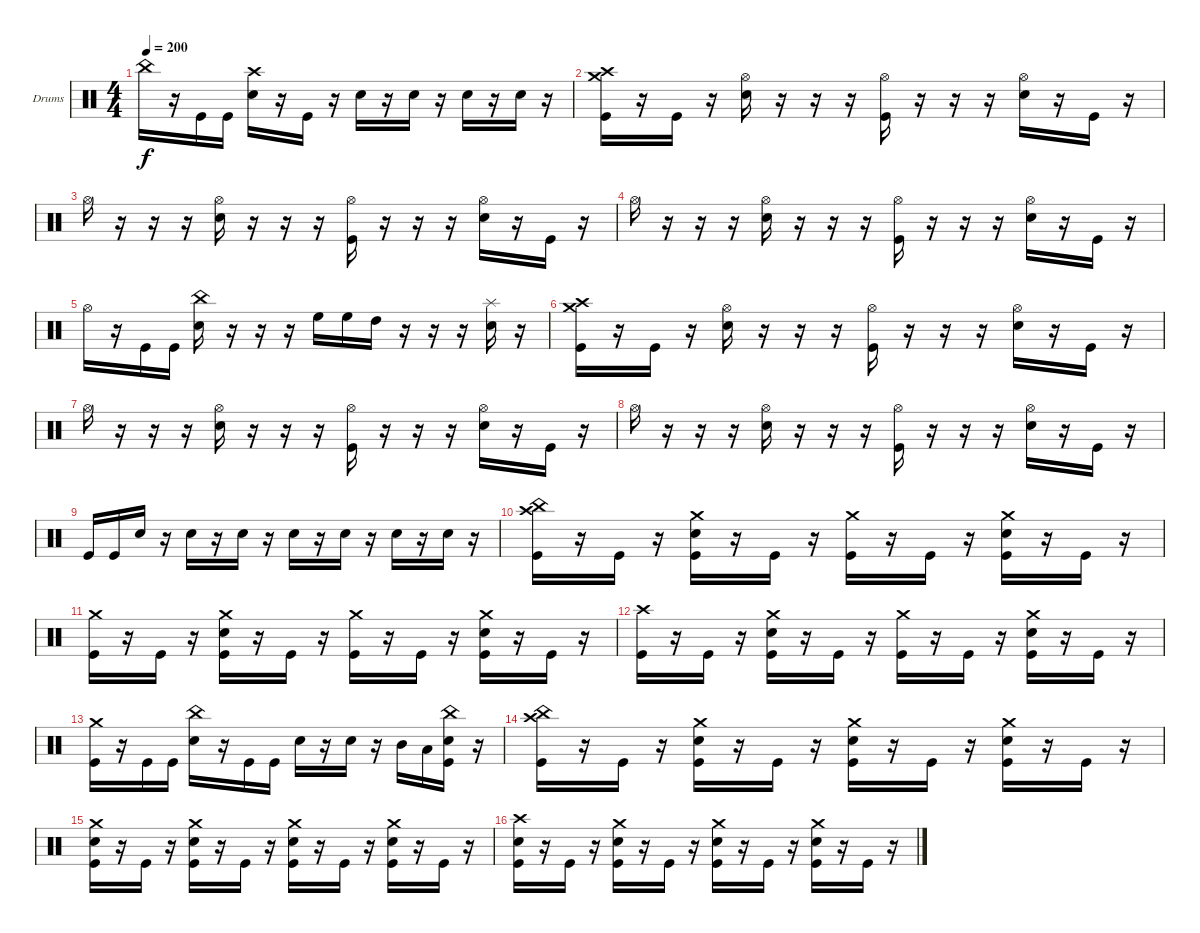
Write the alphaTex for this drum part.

\defaultSystemsLayout 4
\bracketExtendMode groupsimilarinstruments
\firstSystemTrackNameOrientation horizontal
\otherSystemsTrackNameOrientation horizontal
\track ("Drumkit" "Drums") {instrument percussion}
\staff {score}
\articulation defaults
\ts (4 4)
\tempo 200
\clef neutral
\ks c "China (hit)".16{dy f}
r.16 "Kick (hit)".16 "Kick (hit)".16 ("Snare (hit) 2" "Crash high (hit)").16 r.16 "Kick (hit)".16 r.16 "Snare (hit) 2".16 r.16 "Snare (hit) 2".16 r.16 "Snare (hit) 2".16 r.16 "Snare (hit) 2".16 r.16 |
("Kick (hit)" "Crash medium (hit)" "Crash high (hit)").16 r.16 "Kick (hit)".16 r.16 ("Snare (hit) 2" "Hi-Hat (open)").16 r.16 r.16 r.16 ("Kick (hit)" "Hi-Hat (open)").16 r.16 r.16 r.16 ("Snare (hit) 2" "Hi-Hat (open)").16 r.16 "Kick (hit)".16 r.16 |
"Hi-Hat (open)".16 r.16 r.16 r.16 ("Snare (hit) 2" "Hi-Hat (open)").16 r.16 r.16 r.16 ("Kick (hit)" "Hi-Hat (open)").16 r.16 r.16 r.16 ("Snare (hit) 2" "Hi-Hat (open)").16 r.16 "Kick (hit)".16 r.16 |
"Hi-Hat (open)".16 r.16 r.16 r.16 ("Snare (hit) 2" "Hi-Hat (open)").16 r.16 r.16 r.16 ("Kick (hit)" "Hi-Hat (open)").16 r.16 r.16 r.16 ("Snare (hit) 2" "Hi-Hat (open)").16 r.16 "Kick (hit)".16 r.16 |
"Hi-Hat (open)".16 r.16 "Kick (hit)".16 "Kick (hit)".16 ("Snare (hit) 2" "China (hit)").16 r.16 r.16 r.16 "High Floor Tom (hit)".16 "High Floor Tom (hit)".16 "High Tom (hit)".16 r.16 r.16 r.16 ("Snare (hit) 2" "Splash (hit)").16 r.16 |
("Kick (hit)" "Crash medium (hit)" "Crash high (hit)").16 r.16 "Kick (hit)".16 r.16 ("Snare (hit) 2" "Hi-Hat (open)").16 r.16 r.16 r.16 ("Kick (hit)" "Hi-Hat (open)").16 r.16 r.16 r.16 ("Snare (hit) 2" "Hi-Hat (open)").16 r.16 "Kick (hit)".16 r.16 |
"Hi-Hat (open)".16 r.16 r.16 r.16 ("Snare (hit) 2" "Hi-Hat (open)").16 r.16 r.16 r.16 ("Kick (hit)" "Hi-Hat (open)").16 r.16 r.16 r.16 ("Snare (hit) 2" "Hi-Hat (open)").16 r.16 "Kick (hit)".16 r.16 |
"Hi-Hat (open)".16 r.16 r.16 r.16 ("Snare (hit) 2" "Hi-Hat (open)").16 r.16 r.16 r.16 ("Kick (hit)" "Hi-Hat (open)").16 r.16 r.16 r.16 ("Snare (hit) 2" "Hi-Hat (open)").16 r.16 "Kick (hit)".16 r.16 |
"Kick (hit)".16 "Kick (hit)".16 "Snare (hit) 2".16 r.16 "Snare (hit) 2".16 r.16 "Snare (hit) 2".16 r.16 "Snare (hit) 2".16 r.16 "Snare (hit) 2".16 r.16 "Snare (hit) 2".16 r.16 "Snare (hit) 2".16 r.16 |
("Kick (hit)" "China (hit)" "Crash high (hit)").16 r.16 "Kick (hit)".16 r.16 ("Kick (hit)" "Snare (hit) 2" "Crash medium (hit)").16 r.16 "Kick (hit)".16 r.16 ("Kick (hit)" "Crash medium (hit)").16 r.16 "Kick (hit)".16 r.16 ("Kick (hit)" "Snare (hit) 2" "Crash medium (hit)").16 r.16 "Kick (hit)".16 r.16 |
("Kick (hit)" "Crash medium (hit)").16 r.16 "Kick (hit)".16 r.16 ("Kick (hit)" "Snare (hit) 2" "Crash medium (hit)").16 r.16 "Kick (hit)".16 r.16 ("Kick (hit)" "Crash medium (hit)").16 r.16 "Kick (hit)".16 r.16 ("Kick (hit)" "Snare (hit) 2" "Crash medium (hit)").16 r.16 "Kick (hit)".16 r.16 |
("Kick (hit)" "Crash high (hit)").16 r.16 "Kick (hit)".16 r.16 ("Kick (hit)" "Snare (hit) 2" "Crash medium (hit)").16 r.16 "Kick (hit)".16 r.16 ("Kick (hit)" "Crash medium (hit)").16 r.16 "Kick (hit)".16 r.16 ("Kick (hit)" "Snare (hit) 2" "Crash medium (hit)").16 r.16 "Kick (hit)".16 r.16 |
("Kick (hit)" "Crash medium (hit)").16 r.16 "Kick (hit)".16 "Kick (hit)".16 ("Snare (hit) 2" "China (hit)").16 r.16 "Kick (hit)".16 "Kick (hit)".16 "Snare (hit) 2".16 r.16 "Snare (hit) 2".16 r.16 "Mid Tom (hit)".16 "Low Tom (hit)".16 ("Kick (hit)" "Snare (hit) 2" "China (hit)").16 r.16 |
("Kick (hit)" "China (hit)" "Crash high (hit)").16 r.16 "Kick (hit)".16 r.16 ("Kick (hit)" "Snare (hit) 2" "Crash medium (hit)").16 r.16 "Kick (hit)".16 r.16 ("Kick (hit)" "Snare (hit) 2" "Crash medium (hit)").16 r.16 "Kick (hit)".16 r.16 ("Kick (hit)" "Snare (hit) 2" "Crash medium (hit)").16 r.16 "Kick (hit)".16 r.16 |
("Kick (hit)" "Snare (hit) 2" "Crash medium (hit)").16 r.16 "Kick (hit)".16 r.16 ("Kick (hit)" "Snare (hit) 2" "Crash medium (hit)").16 r.16 "Kick (hit)".16 r.16 ("Kick (hit)" "Snare (hit) 2" "Crash medium (hit)").16 r.16 "Kick (hit)".16 r.16 ("Kick (hit)" "Snare (hit) 2" "Crash medium (hit)").16 r.16 "Kick (hit)".16 r.16 |
("Kick (hit)" "Snare (hit) 2" "Crash high (hit)").16 r.16 "Kick (hit)".16 r.16 ("Kick (hit)" "Snare (hit) 2" "Crash medium (hit)").16 r.16 "Kick (hit)".16 r.16 ("Kick (hit)" "Snare (hit) 2" "Crash medium (hit)").16 r.16 "Kick (hit)".16 r.16 ("Kick (hit)" "Snare (hit) 2" "Crash medium (hit)").16 r.16 "Kick (hit)".16 r.16
